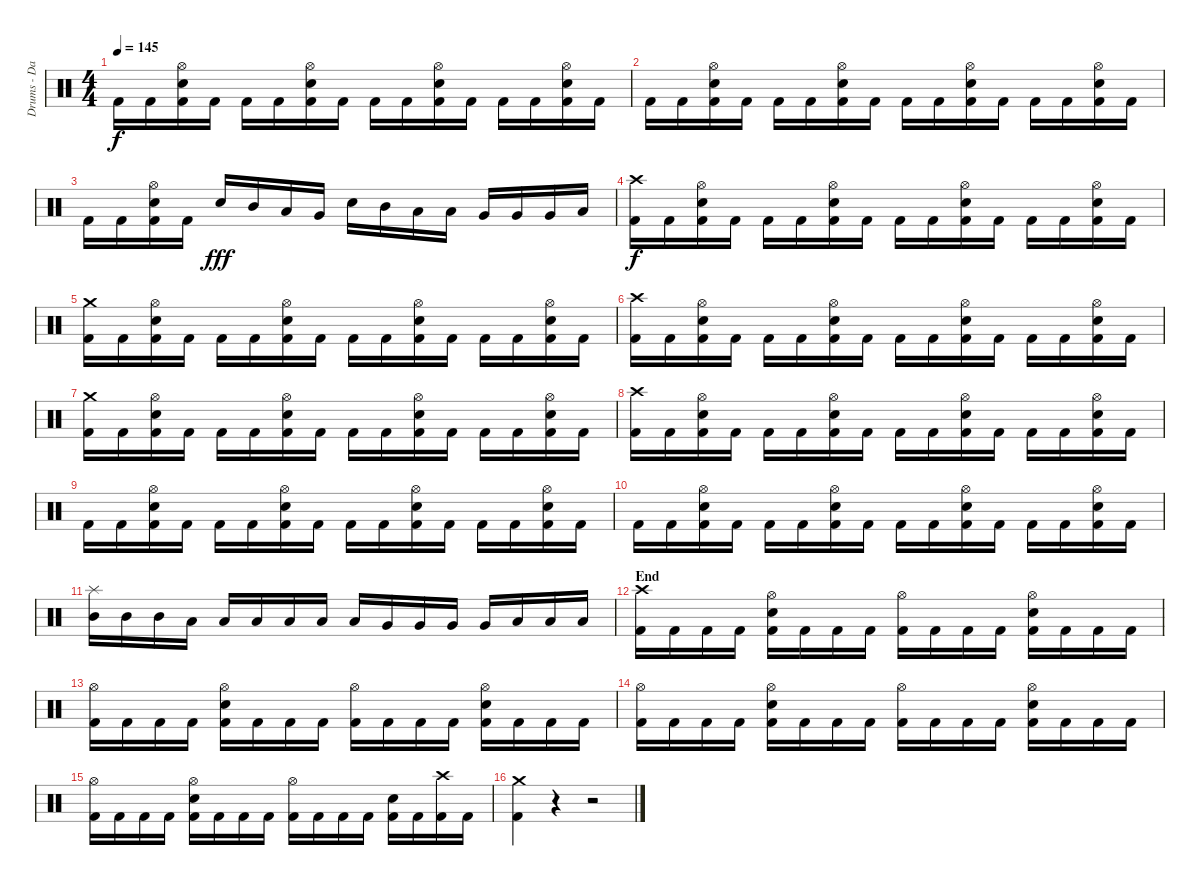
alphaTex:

\track ("Drums - Daniel Zimmermann" "Drums - Da") {instrument percussion}
\staff {score}
\articulation defaults
\ts (4 4)
\tempo 145
\clef neutral
\ks c "Kick (hit) 2".16{dy f} "Kick (hit) 2".16
("Kick (hit) 2" "Electric Snare (hit)" "Hi-Hat (open)").16 "Kick (hit) 2".16 "Kick (hit) 2".16 "Kick (hit) 2".16 ("Kick (hit) 2" "Electric Snare (hit)" "Hi-Hat (open)").16 "Kick (hit) 2".16 "Kick (hit) 2".16 "Kick (hit) 2".16 ("Kick (hit) 2" "Electric Snare (hit)" "Hi-Hat (open)").16 "Kick (hit) 2".16 "Kick (hit) 2".16 "Kick (hit) 2".16 ("Kick (hit) 2" "Electric Snare (hit)" "Hi-Hat (open)").16 "Kick (hit) 2".16 |
"Kick (hit) 2".16 "Kick (hit) 2".16 ("Kick (hit) 2" "Electric Snare (hit)" "Hi-Hat (open)").16 "Kick (hit) 2".16 "Kick (hit) 2".16 "Kick (hit) 2".16 ("Kick (hit) 2" "Electric Snare (hit)" "Hi-Hat (open)").16 "Kick (hit) 2".16 "Kick (hit) 2".16 "Kick (hit) 2".16 ("Kick (hit) 2" "Electric Snare (hit)" "Hi-Hat (open)").16 "Kick (hit) 2".16 "Kick (hit) 2".16 "Kick (hit) 2".16 ("Kick (hit) 2" "Electric Snare (hit)" "Hi-Hat (open)").16 "Kick (hit) 2".16 |
"Kick (hit) 2".16 "Kick (hit) 2".16 ("Kick (hit) 2" "Electric Snare (hit)" "Hi-Hat (open)").16 "Kick (hit) 2".16 "Electric Snare (hit)".16{dy fff} "Mid Tom (hit)".16 "Low Tom (hit)".16 "Very Low Tom (hit)".16 "Electric Snare (hit)".16 "Mid Tom (hit)".16 "Low Tom (hit)".16 "Low Tom (hit)".16 "Very Low Tom (hit)".16 "Very Low Tom (hit)".16 "Very Low Tom (hit)".16 "Low Floor Tom (hit)".16 |
("Kick (hit) 2" "Crash high (hit)").16{dy f} "Kick (hit) 2".16 ("Kick (hit) 2" "Electric Snare (hit)" "Hi-Hat (open)").16 "Kick (hit) 2".16 "Kick (hit) 2".16 "Kick (hit) 2".16 ("Kick (hit) 2" "Electric Snare (hit)" "Hi-Hat (open)").16 "Kick (hit) 2".16 "Kick (hit) 2".16 "Kick (hit) 2".16 ("Kick (hit) 2" "Electric Snare (hit)" "Hi-Hat (open)").16 "Kick (hit) 2".16 "Kick (hit) 2".16 "Kick (hit) 2".16 ("Kick (hit) 2" "Electric Snare (hit)" "Hi-Hat (open)").16 "Kick (hit) 2".16 |
("Kick (hit) 2" "Crash medium (hit)").16 "Kick (hit) 2".16 ("Kick (hit) 2" "Electric Snare (hit)" "Hi-Hat (open)").16 "Kick (hit) 2".16 "Kick (hit) 2".16 "Kick (hit) 2".16 ("Kick (hit) 2" "Electric Snare (hit)" "Hi-Hat (open)").16 "Kick (hit) 2".16 "Kick (hit) 2".16 "Kick (hit) 2".16 ("Kick (hit) 2" "Electric Snare (hit)" "Hi-Hat (open)").16 "Kick (hit) 2".16 "Kick (hit) 2".16 "Kick (hit) 2".16 ("Kick (hit) 2" "Electric Snare (hit)" "Hi-Hat (open)").16 "Kick (hit) 2".16 |
("Kick (hit) 2" "Crash high (hit)").16 "Kick (hit) 2".16 ("Kick (hit) 2" "Electric Snare (hit)" "Hi-Hat (open)").16 "Kick (hit) 2".16 "Kick (hit) 2".16 "Kick (hit) 2".16 ("Kick (hit) 2" "Electric Snare (hit)" "Hi-Hat (open)").16 "Kick (hit) 2".16 "Kick (hit) 2".16 "Kick (hit) 2".16 ("Kick (hit) 2" "Electric Snare (hit)" "Hi-Hat (open)").16 "Kick (hit) 2".16 "Kick (hit) 2".16 "Kick (hit) 2".16 ("Kick (hit) 2" "Electric Snare (hit)" "Hi-Hat (open)").16 "Kick (hit) 2".16 |
("Kick (hit) 2" "Crash medium (hit)").16 "Kick (hit) 2".16 ("Kick (hit) 2" "Electric Snare (hit)" "Hi-Hat (open)").16 "Kick (hit) 2".16 "Kick (hit) 2".16 "Kick (hit) 2".16 ("Kick (hit) 2" "Electric Snare (hit)" "Hi-Hat (open)").16 "Kick (hit) 2".16 "Kick (hit) 2".16 "Kick (hit) 2".16 ("Kick (hit) 2" "Electric Snare (hit)" "Hi-Hat (open)").16 "Kick (hit) 2".16 "Kick (hit) 2".16 "Kick (hit) 2".16 ("Kick (hit) 2" "Electric Snare (hit)" "Hi-Hat (open)").16 "Kick (hit) 2".16 |
("Kick (hit) 2" "Crash high (hit)").16 "Kick (hit) 2".16 ("Kick (hit) 2" "Electric Snare (hit)" "Hi-Hat (open)").16 "Kick (hit) 2".16 "Kick (hit) 2".16 "Kick (hit) 2".16 ("Kick (hit) 2" "Electric Snare (hit)" "Hi-Hat (open)").16 "Kick (hit) 2".16 "Kick (hit) 2".16 "Kick (hit) 2".16 ("Kick (hit) 2" "Electric Snare (hit)" "Hi-Hat (open)").16 "Kick (hit) 2".16 "Kick (hit) 2".16 "Kick (hit) 2".16 ("Kick (hit) 2" "Electric Snare (hit)" "Hi-Hat (open)").16 "Kick (hit) 2".16 |
"Kick (hit) 2".16 "Kick (hit) 2".16 ("Kick (hit) 2" "Electric Snare (hit)" "Hi-Hat (open)").16 "Kick (hit) 2".16 "Kick (hit) 2".16 "Kick (hit) 2".16 ("Kick (hit) 2" "Electric Snare (hit)" "Hi-Hat (open)").16 "Kick (hit) 2".16 "Kick (hit) 2".16 "Kick (hit) 2".16 ("Kick (hit) 2" "Electric Snare (hit)" "Hi-Hat (open)").16 "Kick (hit) 2".16 "Kick (hit) 2".16 "Kick (hit) 2".16 ("Kick (hit) 2" "Electric Snare (hit)" "Hi-Hat (open)").16 "Kick (hit) 2".16 |
"Kick (hit) 2".16 "Kick (hit) 2".16 ("Kick (hit) 2" "Electric Snare (hit)" "Hi-Hat (open)").16 "Kick (hit) 2".16 "Kick (hit) 2".16 "Kick (hit) 2".16 ("Kick (hit) 2" "Electric Snare (hit)" "Hi-Hat (open)").16 "Kick (hit) 2".16 "Kick (hit) 2".16 "Kick (hit) 2".16 ("Kick (hit) 2" "Electric Snare (hit)" "Hi-Hat (open)").16 "Kick (hit) 2".16 "Kick (hit) 2".16 "Kick (hit) 2".16 ("Kick (hit) 2" "Electric Snare (hit)" "Hi-Hat (open)").16 "Kick (hit) 2".16 |
("Mid Tom (hit)" "Splash (hit)").16 "Mid Tom (hit)".16 "Mid Tom (hit)".16 "Low Tom (hit)".16 "Low Tom (hit)".16 "Low Tom (hit)".16 "Low Tom (hit)".16 "Low Tom (hit)".16 "Low Tom (hit)".16 "Very Low Tom (hit)".16 "Very Low Tom (hit)".16 "Very Low Tom (hit)".16 "Very Low Tom (hit)".16 "Low Floor Tom (hit)".16 "Low Floor Tom (hit)".16 "Low Floor Tom (hit)".16 |
\section ("" "End")
("Kick (hit) 2" "Crash high (hit)").16 "Kick (hit) 2".16 "Kick (hit) 2".16 "Kick (hit) 2".16 ("Kick (hit) 2" "Electric Snare (hit)" "Hi-Hat (open)").16 "Kick (hit) 2".16 "Kick (hit) 2".16 "Kick (hit) 2".16 ("Kick (hit) 2" "Hi-Hat (open)").16 "Kick (hit) 2".16 "Kick (hit) 2".16 "Kick (hit) 2".16 ("Kick (hit) 2" "Electric Snare (hit)" "Hi-Hat (open)").16 "Kick (hit) 2".16 "Kick (hit) 2".16 "Kick (hit) 2".16 |
("Kick (hit) 2" "Hi-Hat (open)").16 "Kick (hit) 2".16 "Kick (hit) 2".16 "Kick (hit) 2".16 ("Kick (hit) 2" "Electric Snare (hit)" "Hi-Hat (open)").16 "Kick (hit) 2".16 "Kick (hit) 2".16 "Kick (hit) 2".16 ("Kick (hit) 2" "Hi-Hat (open)").16 "Kick (hit) 2".16 "Kick (hit) 2".16 "Kick (hit) 2".16 ("Kick (hit) 2" "Electric Snare (hit)" "Hi-Hat (open)").16 "Kick (hit) 2".16 "Kick (hit) 2".16 "Kick (hit) 2".16 |
("Kick (hit) 2" "Hi-Hat (open)").16 "Kick (hit) 2".16 "Kick (hit) 2".16 "Kick (hit) 2".16 ("Kick (hit) 2" "Electric Snare (hit)" "Hi-Hat (open)").16 "Kick (hit) 2".16 "Kick (hit) 2".16 "Kick (hit) 2".16 ("Kick (hit) 2" "Hi-Hat (open)").16 "Kick (hit) 2".16 "Kick (hit) 2".16 "Kick (hit) 2".16 ("Kick (hit) 2" "Electric Snare (hit)" "Hi-Hat (open)").16 "Kick (hit) 2".16 "Kick (hit) 2".16 "Kick (hit) 2".16 |
("Kick (hit) 2" "Hi-Hat (open)").16 "Kick (hit) 2".16 "Kick (hit) 2".16 "Kick (hit) 2".16 ("Kick (hit) 2" "Electric Snare (hit)" "Hi-Hat (open)").16 "Kick (hit) 2".16 "Kick (hit) 2".16 "Kick (hit) 2".16 ("Kick (hit) 2" "Hi-Hat (open)").16 "Kick (hit) 2".16 "Kick (hit) 2".16 "Kick (hit) 2".16 ("Kick (hit) 2" "Electric Snare (hit)").16 "Kick (hit) 2".16 ("Kick (hit) 2" "Crash high (hit)").16 "Kick (hit) 2".16 |
("Kick (hit) 2" "Crash medium (hit)").4 r.4 r.2
